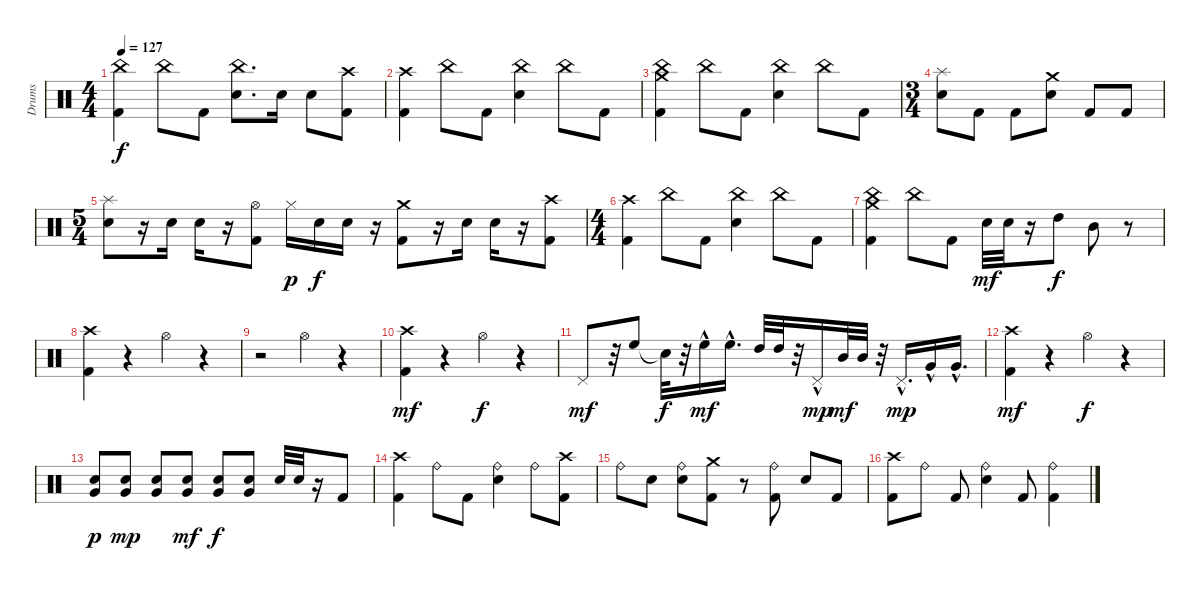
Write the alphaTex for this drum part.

\track ("Drums" "Drums") {instrument percussion}
\staff {score}
\articulation defaults
\ts (4 4)
\tempo 127
\clef neutral
\ks c
("Kick (hit) 2" "China (hit)").4{dy f} "China (hit)".8 "Kick (hit) 2".8 ("China (hit)" "Electric Snare (hit)").8{d} "Electric Snare (hit)".16 "Electric Snare (hit)".8 ("Kick (hit) 2" "Crash high (hit)").8 |
("Kick (hit) 2" "Crash high (hit)").4 "China (hit)".8 "Kick (hit) 2".8 ("China (hit)" "Electric Snare (hit)").4 "China (hit)".8 "Kick (hit) 2".8 |
("Kick (hit) 2" "Crash medium (hit)" "China (hit)").4 "China (hit)".8 "Kick (hit) 2".8 ("China (hit)" "Electric Snare (hit)").4 "China (hit)".8 "Kick (hit) 2".8 |
\ts (3 4)
("Electric Snare (hit)" "Splash (hit)").8 "Kick (hit) 2".8 "Kick (hit) 2".8 ("Electric Snare (hit)" "Crash medium (hit)").8 "Kick (hit) 2".8 "Kick (hit) 2".8 |
\ts (5 4)
("Electric Snare (hit)" "Splash (hit)").8 r.16 "Electric Snare (hit)".16 "Electric Snare (hit)".16 r.16 ("Hi-Hat (open)" "Kick (hit) 2").8 "Hi-Hat (closed)".16{dy p} "Electric Snare (hit)".16{dy f} "Electric Snare (hit)".16 r.16 ("Kick (hit) 2" "Crash medium (hit)").8 r.16 "Electric Snare (hit)".16 "Electric Snare (hit)".16 r.16 ("Kick (hit) 2" "Crash high (hit)").8 |
\ts (4 4)
("Crash high (hit)" "Kick (hit) 2").4 "China (hit)".8 "Kick (hit) 2".8 ("China (hit)" "Electric Snare (hit)").4 "China (hit)".8 "Kick (hit) 2".8 |
("Kick (hit) 2" "Crash medium (hit)" "China (hit)").4 "China (hit)".8 "Kick (hit) 2".8 "Electric Snare (hit)".32{dy mf} "Electric Snare (hit)".32 r.16 "High Tom (hit)".8{dy f} "Mid Tom (hit)".8 r.8 |
("Kick (hit) 2" "Crash high (hit)").4 r.4 "Hi-Hat (open)".4 r.4 |
r.2 "Hi-Hat (open)".4 r.4 |
("Crash high (hit)" "Kick (hit) 2").4{dy mf} r.4 "Hi-Hat (open)".4{dy f} r.4 |
"Pedal Hi-Hat (hit)".8{dy mf} r.32 "High Floor Tom (hit)".8 "Snare (hit)"{t}.32{dy f} r.32 "High Floor Tom (hit)"{hac}.16{dy mf} "High Floor Tom (hit)"{hac}.16{d} "High Tom (hit)".32 "High Tom (hit)".32 r.32 "Pedal Hi-Hat (hit)"{hac}.16{dy mp} "Mid Tom (hit)".32{dy mf} "Mid Tom (hit)".32 r.32 "Pedal Hi-Hat (hit)"{hac}.16{d dy mp} "Very Low Tom (hit)"{hac}.16 "Very Low Tom (hit)"{hac}.16{d} |
("Kick (hit) 2" "Crash high (hit)").4{dy mf} r.4 "Hi-Hat (open)".4{dy f} r.4 |
("Electric Snare (hit)" "Very Low Tom (hit)").8{dy p} ("Electric Snare (hit)" "Very Low Tom (hit)").8{dy mp} ("Electric Snare (hit)" "Very Low Tom (hit)").8 ("Electric Snare (hit)" "Very Low Tom (hit)").8{dy mf} ("Electric Snare (hit)" "Very Low Tom (hit)").8{dy f} ("Electric Snare (hit)" "Very Low Tom (hit)").8 "Electric Snare (hit)".32 "Electric Snare (hit)".32 r.16 "Kick (hit) 2".8 |
("Kick (hit) 2" "Crash high (hit)").4 "Ride (bell)".8 "Kick (hit) 2".8 ("Ride (bell)" "Electric Snare (hit)").4 "Ride (bell)".8 ("Kick (hit) 2" "Crash high (hit)").8 |
"Ride (bell)".8 "Electric Snare (hit)".8 ("Electric Snare (hit)" "Ride (bell)").8 ("Kick (hit) 2" "Crash medium (hit)").8 r.8 ("Kick (hit) 2" "Ride (bell)").8 "Electric Snare (hit)".8 "Kick (hit) 2".8 |
("Crash high (hit)" "Kick (hit) 2").8 "Ride (bell)".8 "Kick (hit) 2".8 ("Electric Snare (hit)" "Ride (bell)").4 "Kick (hit) 2".8 ("Kick (hit) 2" "Ride (bell)").4
